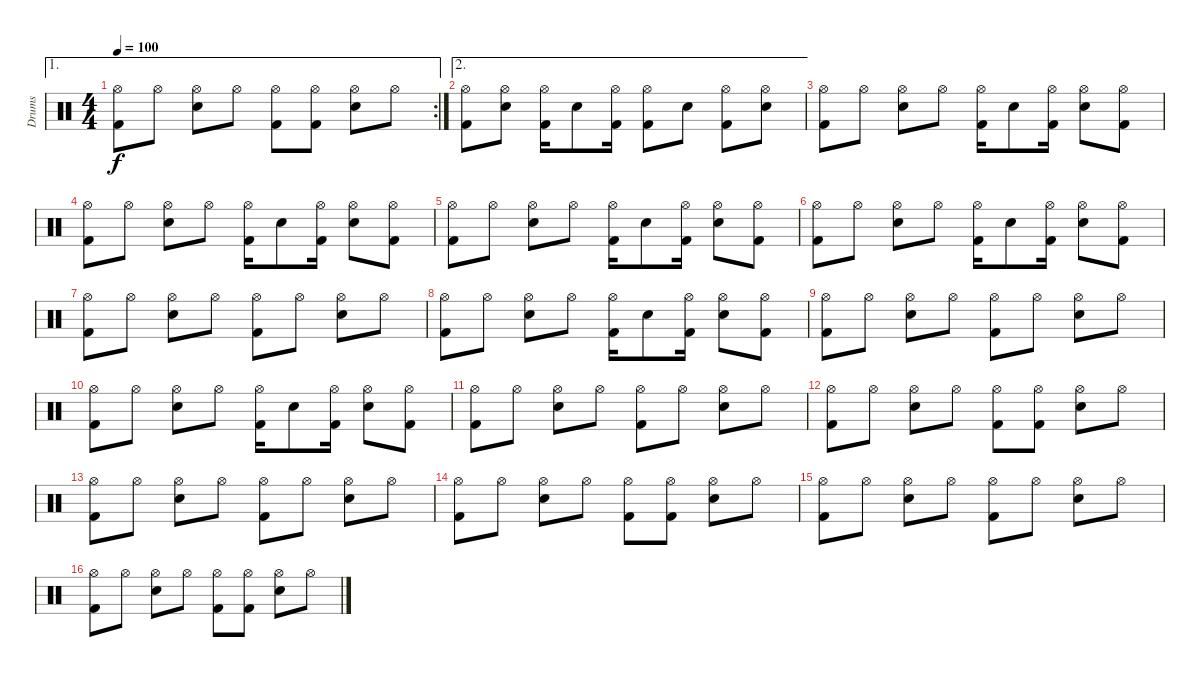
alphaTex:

\track ("Drums" "Drums") {instrument percussion}
\staff {score}
\articulation defaults
\ae 1
\rc 2
\ts (4 4)
\tempo 100
\clef neutral
\ks c
("Hi-Hat (open)" "Kick (hit) 2").8{dy f} "Hi-Hat (open)".8 ("Hi-Hat (open)" "Electric Snare (hit)").8 "Hi-Hat (open)".8 ("Hi-Hat (open)" "Kick (hit) 2").8 ("Hi-Hat (open)" "Kick (hit) 2").8 ("Hi-Hat (open)" "Electric Snare (hit)").8 "Hi-Hat (open)".8 |
\ae 2
("Hi-Hat (open)" "Kick (hit) 2").8 ("Hi-Hat (open)" "Electric Snare (hit)").8 ("Hi-Hat (open)" "Kick (hit) 2").16 "Electric Snare (hit)".8 ("Hi-Hat (open)" "Kick (hit) 2").16 ("Hi-Hat (open)" "Kick (hit) 2").8 "Electric Snare (hit)".8 ("Hi-Hat (open)" "Kick (hit) 2").8 ("Hi-Hat (open)" "Electric Snare (hit)").8 |
("Hi-Hat (open)" "Kick (hit) 2").8 "Hi-Hat (open)".8 ("Hi-Hat (open)" "Electric Snare (hit)").8 "Hi-Hat (open)".8 ("Hi-Hat (open)" "Kick (hit) 2").16 "Electric Snare (hit)".8 ("Hi-Hat (open)" "Kick (hit) 2").16 ("Hi-Hat (open)" "Electric Snare (hit)").8 ("Hi-Hat (open)" "Kick (hit) 2").8 |
("Hi-Hat (open)" "Kick (hit) 2").8 "Hi-Hat (open)".8 ("Hi-Hat (open)" "Electric Snare (hit)").8 "Hi-Hat (open)".8 ("Hi-Hat (open)" "Kick (hit) 2").16 "Electric Snare (hit)".8 ("Hi-Hat (open)" "Kick (hit) 2").16 ("Hi-Hat (open)" "Electric Snare (hit)").8 ("Hi-Hat (open)" "Kick (hit) 2").8 |
("Hi-Hat (open)" "Kick (hit) 2").8 "Hi-Hat (open)".8 ("Hi-Hat (open)" "Electric Snare (hit)").8 "Hi-Hat (open)".8 ("Hi-Hat (open)" "Kick (hit) 2").16 "Electric Snare (hit)".8 ("Hi-Hat (open)" "Kick (hit) 2").16 ("Hi-Hat (open)" "Electric Snare (hit)").8 ("Hi-Hat (open)" "Kick (hit) 2").8 |
("Hi-Hat (open)" "Kick (hit) 2").8 "Hi-Hat (open)".8 ("Hi-Hat (open)" "Electric Snare (hit)").8 "Hi-Hat (open)".8 ("Hi-Hat (open)" "Kick (hit) 2").16 "Electric Snare (hit)".8 ("Hi-Hat (open)" "Kick (hit) 2").16 ("Hi-Hat (open)" "Electric Snare (hit)").8 ("Hi-Hat (open)" "Kick (hit) 2").8 |
("Hi-Hat (open)" "Kick (hit) 2").8 "Hi-Hat (open)".8 ("Hi-Hat (open)" "Electric Snare (hit)").8 "Hi-Hat (open)".8 ("Hi-Hat (open)" "Kick (hit) 2").8 "Hi-Hat (open)".8 ("Hi-Hat (open)" "Electric Snare (hit)").8 "Hi-Hat (open)".8 |
("Hi-Hat (open)" "Kick (hit) 2").8 "Hi-Hat (open)".8 ("Hi-Hat (open)" "Electric Snare (hit)").8 "Hi-Hat (open)".8 ("Hi-Hat (open)" "Kick (hit) 2").16 "Electric Snare (hit)".8 ("Hi-Hat (open)" "Kick (hit) 2").16 ("Hi-Hat (open)" "Electric Snare (hit)").8 ("Hi-Hat (open)" "Kick (hit) 2").8 |
("Hi-Hat (open)" "Kick (hit) 2").8 "Hi-Hat (open)".8 ("Hi-Hat (open)" "Electric Snare (hit)").8 "Hi-Hat (open)".8 ("Hi-Hat (open)" "Kick (hit) 2").8 "Hi-Hat (open)".8 ("Hi-Hat (open)" "Electric Snare (hit)").8 "Hi-Hat (open)".8 |
("Hi-Hat (open)" "Kick (hit) 2").8 "Hi-Hat (open)".8 ("Hi-Hat (open)" "Electric Snare (hit)").8 "Hi-Hat (open)".8 ("Hi-Hat (open)" "Kick (hit) 2").16 "Electric Snare (hit)".8 ("Hi-Hat (open)" "Kick (hit) 2").16 ("Hi-Hat (open)" "Electric Snare (hit)").8 ("Hi-Hat (open)" "Kick (hit) 2").8 |
("Hi-Hat (open)" "Kick (hit) 2").8 "Hi-Hat (open)".8 ("Hi-Hat (open)" "Electric Snare (hit)").8 "Hi-Hat (open)".8 ("Hi-Hat (open)" "Kick (hit) 2").8 "Hi-Hat (open)".8 ("Hi-Hat (open)" "Electric Snare (hit)").8 "Hi-Hat (open)".8 |
("Hi-Hat (open)" "Kick (hit) 2").8 "Hi-Hat (open)".8 ("Hi-Hat (open)" "Electric Snare (hit)").8 "Hi-Hat (open)".8 ("Hi-Hat (open)" "Kick (hit) 2").8 ("Hi-Hat (open)" "Kick (hit) 2").8 ("Hi-Hat (open)" "Electric Snare (hit)").8 "Hi-Hat (open)".8 |
("Hi-Hat (open)" "Kick (hit) 2").8 "Hi-Hat (open)".8 ("Hi-Hat (open)" "Electric Snare (hit)").8 "Hi-Hat (open)".8 ("Hi-Hat (open)" "Kick (hit) 2").8 "Hi-Hat (open)".8 ("Hi-Hat (open)" "Electric Snare (hit)").8 "Hi-Hat (open)".8 |
("Hi-Hat (open)" "Kick (hit) 2").8 "Hi-Hat (open)".8 ("Hi-Hat (open)" "Electric Snare (hit)").8 "Hi-Hat (open)".8 ("Hi-Hat (open)" "Kick (hit) 2").8 ("Hi-Hat (open)" "Kick (hit) 2").8 ("Hi-Hat (open)" "Electric Snare (hit)").8 "Hi-Hat (open)".8 |
("Hi-Hat (open)" "Kick (hit) 2").8 "Hi-Hat (open)".8 ("Hi-Hat (open)" "Electric Snare (hit)").8 "Hi-Hat (open)".8 ("Hi-Hat (open)" "Kick (hit) 2").8 "Hi-Hat (open)".8 ("Hi-Hat (open)" "Electric Snare (hit)").8 "Hi-Hat (open)".8 |
("Hi-Hat (open)" "Kick (hit) 2").8 "Hi-Hat (open)".8 ("Hi-Hat (open)" "Electric Snare (hit)").8 "Hi-Hat (open)".8 ("Hi-Hat (open)" "Kick (hit) 2").8 ("Hi-Hat (open)" "Kick (hit) 2").8 ("Hi-Hat (open)" "Electric Snare (hit)").8 "Hi-Hat (open)".8
